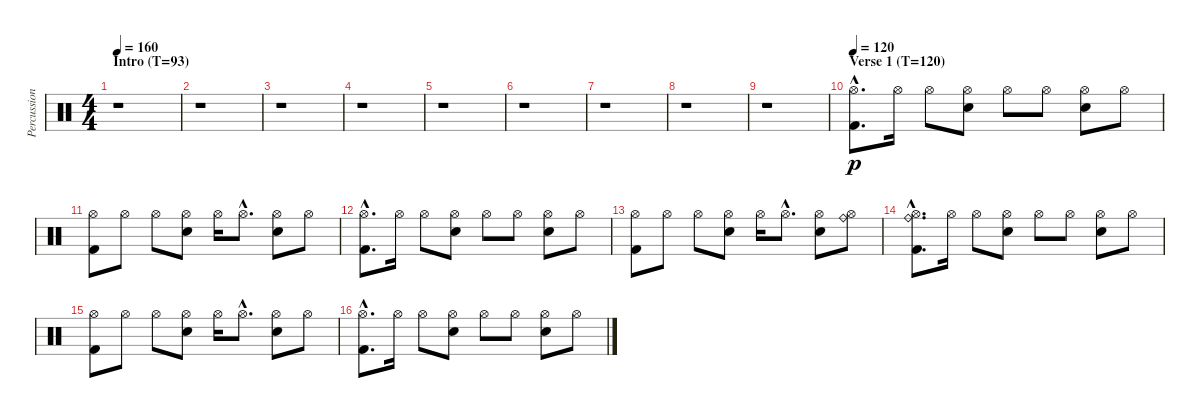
\track ("Percussion" "Percussion") {instrument percussion}
\staff {score}
\articulation defaults
\ts (4 4)
\section ("" "Intro (T=93)")
\tempo 160
\tempo 93
\tempo 160
\clef neutral
\ks c
r.1{dy p} |
r.1 |
r.1 |
r.1 |
r.1 |
r.1 |
r.1 |
r.1 |
r.1 |
\section ("" "Verse 1 (T=120)")
\tempo 120
("Hi-Hat (open)"{hac} "Kick (hit) 2"{hac}).8{d} "Hi-Hat (open)".16 "Hi-Hat (open)".8 ("Hi-Hat (open)" "Electric Snare (hit)").8 "Hi-Hat (open)".8 "Hi-Hat (open)".8 ("Hi-Hat (open)" "Electric Snare (hit)").8 "Hi-Hat (open)".8 |
("Hi-Hat (open)" "Kick (hit) 2").8 "Hi-Hat (open)".8 "Hi-Hat (open)".8 ("Hi-Hat (open)" "Electric Snare (hit)").8 "Hi-Hat (open)".16 "Hi-Hat (open)"{hac}.8{d} ("Hi-Hat (open)" "Electric Snare (hit)").8 "Hi-Hat (open)".8 |
("Hi-Hat (open)"{hac} "Kick (hit) 2"{hac}).8{d} "Hi-Hat (open)".16 "Hi-Hat (open)".8 ("Hi-Hat (open)" "Electric Snare (hit)").8 "Hi-Hat (open)".8 "Hi-Hat (open)".8 ("Hi-Hat (open)" "Electric Snare (hit)").8 "Hi-Hat (open)".8 |
("Hi-Hat (open)" "Kick (hit) 2").8 "Hi-Hat (open)".8 "Hi-Hat (open)".8 ("Hi-Hat (open)" "Electric Snare (hit)").8 "Hi-Hat (open)".16 "Hi-Hat (open)"{hac}.8{d} ("Hi-Hat (open)" "Electric Snare (hit)").8 ("Hi-Hat (open)" "Ride (bell)").8 |
("Hi-Hat (open)"{hac} "Kick (hit) 2"{hac} "Ride (bell)"{hac}).8{d} "Hi-Hat (open)".16 "Hi-Hat (open)".8 ("Hi-Hat (open)" "Electric Snare (hit)").8 "Hi-Hat (open)".8 "Hi-Hat (open)".8 ("Hi-Hat (open)" "Electric Snare (hit)").8 "Hi-Hat (open)".8 |
("Hi-Hat (open)" "Kick (hit) 2").8 "Hi-Hat (open)".8 "Hi-Hat (open)".8 ("Hi-Hat (open)" "Electric Snare (hit)").8 "Hi-Hat (open)".16 "Hi-Hat (open)"{hac}.8{d} ("Hi-Hat (open)" "Electric Snare (hit)").8 "Hi-Hat (open)".8 |
("Hi-Hat (open)"{hac} "Kick (hit) 2"{hac}).8{d} "Hi-Hat (open)".16 "Hi-Hat (open)".8 ("Hi-Hat (open)" "Electric Snare (hit)").8 "Hi-Hat (open)".8 "Hi-Hat (open)".8 ("Hi-Hat (open)" "Electric Snare (hit)").8 "Hi-Hat (open)".8
